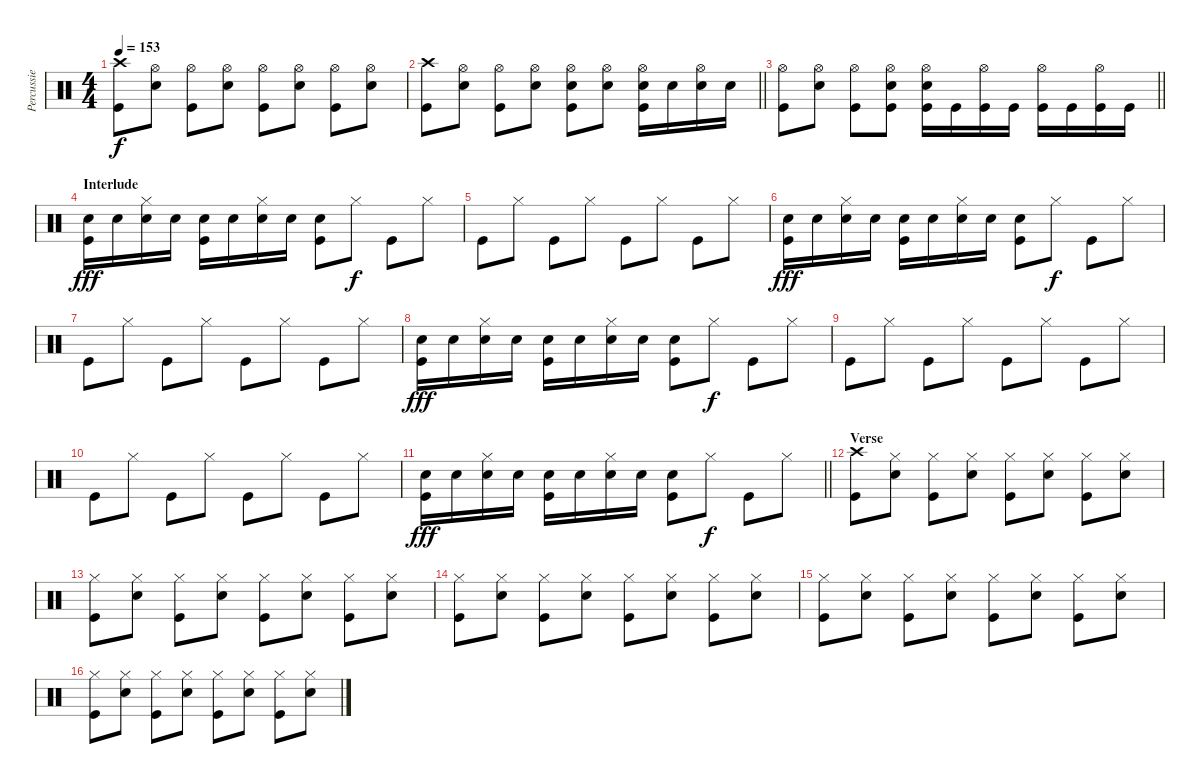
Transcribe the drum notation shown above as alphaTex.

\track ("Percussie George Schwindt" "Percussie ") {instrument percussion}
\staff {score}
\articulation defaults
\ts (4 4)
\tempo 153
\clef neutral
\ks c
("Crash high (hit)" "Kick (hit)").8{dy f} ("Electric Snare (hit)" "Hi-Hat (open)").8 ("Hi-Hat (open)" "Kick (hit)").8 ("Electric Snare (hit)" "Hi-Hat (open)").8 ("Hi-Hat (open)" "Kick (hit)").8 ("Electric Snare (hit)" "Hi-Hat (open)").8 ("Hi-Hat (open)" "Kick (hit)").8 ("Electric Snare (hit)" "Hi-Hat (open)").8 |
\barLineRight lightlight
("Crash high (hit)" "Kick (hit)").8 ("Electric Snare (hit)" "Hi-Hat (open)").8 ("Hi-Hat (open)" "Kick (hit)").8 ("Electric Snare (hit)" "Hi-Hat (open)").8 ("Electric Snare (hit)" "Hi-Hat (open)" "Kick (hit)").8 ("Electric Snare (hit)" "Hi-Hat (open)").8 ("Electric Snare (hit)" "Hi-Hat (open)" "Kick (hit)").16 "Electric Snare (hit)".16 ("Electric Snare (hit)" "Hi-Hat (open)").16 "Electric Snare (hit)".16 |
\barLineRight lightlight
("Hi-Hat (open)" "Kick (hit)").8 ("Electric Snare (hit)" "Hi-Hat (open)").8 ("Hi-Hat (open)" "Kick (hit)").8 ("Electric Snare (hit)" "Hi-Hat (open)" "Kick (hit)").8 ("Electric Snare (hit)" "Hi-Hat (open)" "Kick (hit)").16 "Kick (hit)".16 ("Hi-Hat (open)" "Kick (hit)").16 "Kick (hit)".16 ("Hi-Hat (open)" "Kick (hit)").16 "Kick (hit)".16 ("Hi-Hat (open)" "Kick (hit)").16 "Kick (hit)".16 |
\section ("" "Interlude")
("Electric Snare (hit)" "Kick (hit)").16{dy fff} "Electric Snare (hit)".16 ("Electric Snare (hit)" "Hi-Hat (closed)").16 "Electric Snare (hit)".16 ("Electric Snare (hit)" "Kick (hit)").16 "Electric Snare (hit)".16 ("Electric Snare (hit)" "Hi-Hat (closed)").16 "Electric Snare (hit)".16 ("Electric Snare (hit)" "Kick (hit)").8 "Hi-Hat (closed)".8{dy f} "Kick (hit)".8 "Hi-Hat (closed)".8 |
"Kick (hit)".8 "Hi-Hat (closed)".8 "Kick (hit)".8 "Hi-Hat (closed)".8 "Kick (hit)".8 "Hi-Hat (closed)".8 "Kick (hit)".8 "Hi-Hat (closed)".8 |
("Electric Snare (hit)" "Kick (hit)").16{dy fff} "Electric Snare (hit)".16 ("Electric Snare (hit)" "Hi-Hat (closed)").16 "Electric Snare (hit)".16 ("Electric Snare (hit)" "Kick (hit)").16 "Electric Snare (hit)".16 ("Electric Snare (hit)" "Hi-Hat (closed)").16 "Electric Snare (hit)".16 ("Electric Snare (hit)" "Kick (hit)").8 "Hi-Hat (closed)".8{dy f} "Kick (hit)".8 "Hi-Hat (closed)".8 |
"Kick (hit)".8 "Hi-Hat (closed)".8 "Kick (hit)".8 "Hi-Hat (closed)".8 "Kick (hit)".8 "Hi-Hat (closed)".8 "Kick (hit)".8 "Hi-Hat (closed)".8 |
("Electric Snare (hit)" "Kick (hit)").16{dy fff} "Electric Snare (hit)".16 ("Electric Snare (hit)" "Hi-Hat (closed)").16 "Electric Snare (hit)".16 ("Electric Snare (hit)" "Kick (hit)").16 "Electric Snare (hit)".16 ("Electric Snare (hit)" "Hi-Hat (closed)").16 "Electric Snare (hit)".16 ("Electric Snare (hit)" "Kick (hit)").8 "Hi-Hat (closed)".8{dy f} "Kick (hit)".8 "Hi-Hat (closed)".8 |
"Kick (hit)".8 "Hi-Hat (closed)".8 "Kick (hit)".8 "Hi-Hat (closed)".8 "Kick (hit)".8 "Hi-Hat (closed)".8 "Kick (hit)".8 "Hi-Hat (closed)".8 |
"Kick (hit)".8 "Hi-Hat (closed)".8 "Kick (hit)".8 "Hi-Hat (closed)".8 "Kick (hit)".8 "Hi-Hat (closed)".8 "Kick (hit)".8 "Hi-Hat (closed)".8 |
\barLineRight lightlight
("Electric Snare (hit)" "Kick (hit)").16{dy fff} "Electric Snare (hit)".16 ("Electric Snare (hit)" "Hi-Hat (closed)").16 "Electric Snare (hit)".16 ("Electric Snare (hit)" "Kick (hit)").16 "Electric Snare (hit)".16 ("Electric Snare (hit)" "Hi-Hat (closed)").16 "Electric Snare (hit)".16 ("Electric Snare (hit)" "Kick (hit)").8 "Hi-Hat (closed)".8{dy f} "Kick (hit)".8 "Hi-Hat (closed)".8 |
\section ("" "Verse")
("Crash high (hit)" "Kick (hit)").8 ("Electric Snare (hit)" "Hi-Hat (closed)").8 ("Hi-Hat (closed)" "Kick (hit)").8 ("Electric Snare (hit)" "Hi-Hat (closed)").8 ("Hi-Hat (closed)" "Kick (hit)").8 ("Electric Snare (hit)" "Hi-Hat (closed)").8 ("Hi-Hat (closed)" "Kick (hit)").8 ("Electric Snare (hit)" "Hi-Hat (closed)").8 |
("Hi-Hat (closed)" "Kick (hit)").8 ("Electric Snare (hit)" "Hi-Hat (closed)").8 ("Hi-Hat (closed)" "Kick (hit)").8 ("Electric Snare (hit)" "Hi-Hat (closed)").8 ("Hi-Hat (closed)" "Kick (hit)").8 ("Electric Snare (hit)" "Hi-Hat (closed)").8 ("Hi-Hat (closed)" "Kick (hit)").8 ("Electric Snare (hit)" "Hi-Hat (closed)").8 |
("Hi-Hat (closed)" "Kick (hit)").8 ("Electric Snare (hit)" "Hi-Hat (closed)").8 ("Hi-Hat (closed)" "Kick (hit)").8 ("Electric Snare (hit)" "Hi-Hat (closed)").8 ("Hi-Hat (closed)" "Kick (hit)").8 ("Electric Snare (hit)" "Hi-Hat (closed)").8 ("Hi-Hat (closed)" "Kick (hit)").8 ("Electric Snare (hit)" "Hi-Hat (closed)").8 |
("Hi-Hat (closed)" "Kick (hit)").8 ("Electric Snare (hit)" "Hi-Hat (closed)").8 ("Hi-Hat (closed)" "Kick (hit)").8 ("Electric Snare (hit)" "Hi-Hat (closed)").8 ("Hi-Hat (closed)" "Kick (hit)").8 ("Electric Snare (hit)" "Hi-Hat (closed)").8 ("Hi-Hat (closed)" "Kick (hit)").8 ("Electric Snare (hit)" "Hi-Hat (closed)").8 |
("Hi-Hat (closed)" "Kick (hit)").8 ("Electric Snare (hit)" "Hi-Hat (closed)").8 ("Hi-Hat (closed)" "Kick (hit)").8 ("Electric Snare (hit)" "Hi-Hat (closed)").8 ("Hi-Hat (closed)" "Kick (hit)").8 ("Electric Snare (hit)" "Hi-Hat (closed)").8 ("Hi-Hat (closed)" "Kick (hit)").8 ("Electric Snare (hit)" "Hi-Hat (closed)").8
